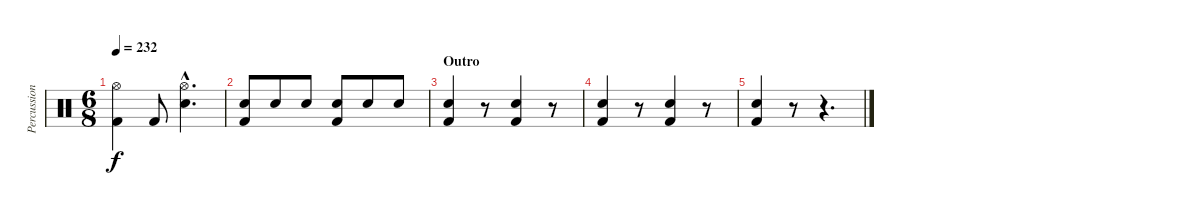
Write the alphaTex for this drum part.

\track ("Percussion" "Percussion") {instrument percussion}
\staff {score}
\articulation defaults
\ts (6 8)
\tempo 232
\clef neutral
\ks c
("Hi-Hat (open)" "Kick (hit) 2").4{dy f} "Kick (hit) 2".8 ("Hi-Hat (open)"{hac} "Electric Snare (hit)"{hac}).4{d} |
("Electric Snare (hit)" "Kick (hit) 2").8 "Electric Snare (hit)".8 "Electric Snare (hit)".8 ("Electric Snare (hit)" "Kick (hit) 2").8 "Electric Snare (hit)".8 "Electric Snare (hit)".8 |
\section ("" "Outro")
("Electric Snare (hit)" "Kick (hit) 2").4 r.8 ("Electric Snare (hit)" "Kick (hit) 2").4 r.8 |
("Electric Snare (hit)" "Kick (hit) 2").4 r.8 ("Electric Snare (hit)" "Kick (hit) 2").4 r.8 |
("Electric Snare (hit)" "Kick (hit) 2").4 r.8 r.4{d}
